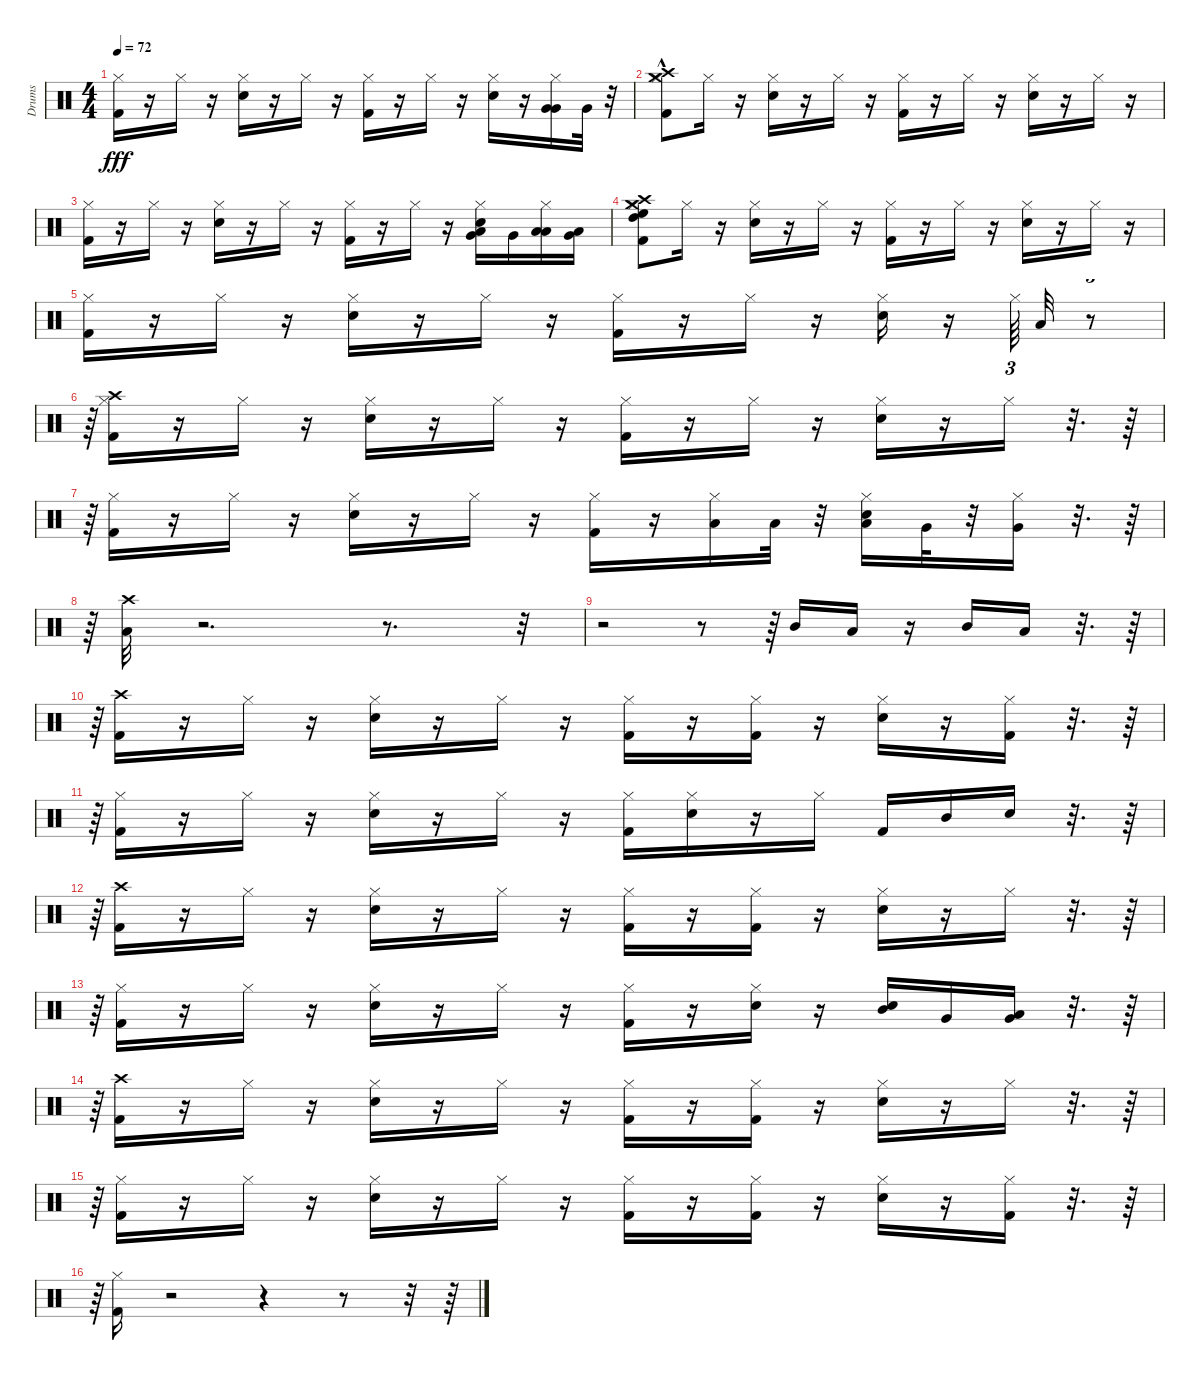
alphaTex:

\track ("Drums" "Drums") {instrument percussion}
\staff {score}
\articulation defaults
\ts (4 4)
\tempo 72
\clef neutral
\ks c
("Hi-Hat (closed)" "Kick (hit) 2").16{dy fff} r.16 "Hi-Hat (closed)".16 r.16 ("Hi-Hat (closed)" "Snare (hit) 2").16 r.16 "Hi-Hat (closed)".16 r.16 ("Kick (hit) 2" "Hi-Hat (closed)").16 r.16 "Hi-Hat (closed)".16 r.16 ("Snare (hit) 2" "Hi-Hat (closed)").16 r.16 ("Very Low Tom (hit)" "Very Low Tom (hit)" "Hi-Hat (closed)").16 "Very Low Tom (hit)".32 r.32 |
("Crash high (hit)"{hac} "Crash medium (hit)" "Hi-Hat (closed)" "Kick (hit) 2").8 "Hi-Hat (closed)".16 r.16 ("Hi-Hat (closed)" "Snare (hit) 2").16 r.16 "Hi-Hat (closed)".16 r.16 ("Hi-Hat (closed)" "Kick (hit) 2").16 r.16 "Hi-Hat (closed)".16 r.16 ("Snare (hit) 2" "Hi-Hat (closed)").16 r.16 "Hi-Hat (closed)".16 r.16 |
("Hi-Hat (closed)" "Kick (hit) 2").16 r.16 "Hi-Hat (closed)".16 r.16 ("Hi-Hat (closed)" "Snare (hit) 2").16 r.16 "Hi-Hat (closed)".16 r.16 ("Hi-Hat (closed)" "Kick (hit) 2").16 r.16 "Hi-Hat (closed)".16 r.16 ("Snare (hit) 2" "Hi-Hat (closed)" "Very Low Tom (hit)" "Low Tom (hit)").16 "Very Low Tom (hit)".16 ("Low Floor Tom (hit)" "Hi-Hat (closed)" "Low Floor Tom (hit)").16 ("Low Floor Tom (hit)" "Very Low Tom (hit)").16 |
("Crash high (hit)" "Crash medium (hit)" "Kick (hit) 2" "Hi-Hat (closed)" "High Tom (hit)" "High Floor Tom (hit)").8 "Hi-Hat (closed)".16 r.16 ("Snare (hit) 2" "Hi-Hat (closed)").16 r.16 "Hi-Hat (closed)".16 r.16 ("Hi-Hat (closed)" "Kick (hit) 2").16 r.16 "Hi-Hat (closed)".16 r.16 ("Snare (hit) 2" "Hi-Hat (closed)").16 r.16 "Hi-Hat (closed)".16 r.16 |
("Kick (hit) 2" "Hi-Hat (closed)").16 r.16 "Hi-Hat (closed)".16 r.16 ("Hi-Hat (closed)" "Snare (hit) 2").16 r.16 "Hi-Hat (closed)".16 r.16 ("Hi-Hat (closed)" "Kick (hit) 2").16 r.16 "Hi-Hat (closed)".16 r.16 ("Snare (hit) 2" "Hi-Hat (closed)").16 r.16 "Hi-Hat (closed)".64{tu (3 2)} "Low Floor Tom (hit)".32 r.8{tu (3 2)} |
r.64{tu (3 2)} ("Kick (hit) 2" "Hi-Hat (closed)" "Crash high (hit)").16 r.16 "Hi-Hat (closed)".16 r.16 ("Hi-Hat (closed)" "Snare (hit) 2").16 r.16 "Hi-Hat (closed)".16 r.16 ("Kick (hit) 2" "Hi-Hat (closed)").16 r.16 "Hi-Hat (closed)".16 r.16 ("Snare (hit) 2" "Hi-Hat (closed)").16 r.16 "Hi-Hat (closed)".16 r.32{d} r.64 |
r.64{tu (3 2)} ("Kick (hit) 2" "Hi-Hat (closed)").16 r.16 "Hi-Hat (closed)".16 r.16 ("Snare (hit) 2" "Hi-Hat (closed)").16 r.16 "Hi-Hat (closed)".16 r.16 ("Kick (hit) 2" "Hi-Hat (closed)").16 r.16 ("Low Tom (hit)" "Hi-Hat (closed)").16 "Low Tom (hit)".32 r.32 ("Low Tom (hit)" "Hi-Hat (closed)" "Snare (hit) 2").16 "Very Low Tom (hit)".32 r.32 ("Hi-Hat (closed)" "Very Low Tom (hit)").16 r.32{d} r.64 |
r.64{tu (3 2)} ("Low Floor Tom (hit)" "Crash high (hit)").32 r.2{d} r.8{d} r.32{tu (3 2)} |
r.2 r.8 r.64{tu (3 2)} "Mid Tom (hit)".16 "Low Floor Tom (hit)".16 r.16 "Mid Tom (hit)".16 "Low Floor Tom (hit)".16 r.32{d} r.64 |
r.64{tu (3 2)} ("Crash high (hit)" "Kick (hit) 2").16 r.16 "Hi-Hat (closed)".16 r.16 ("Snare (hit) 2" "Hi-Hat (closed)").16 r.16 "Hi-Hat (closed)".16 r.16 ("Kick (hit) 2" "Hi-Hat (closed)").16 r.16 ("Hi-Hat (closed)" "Kick (hit) 2").16 r.16 ("Snare (hit) 2" "Hi-Hat (closed)").16 r.16 ("Hi-Hat (closed)" "Kick (hit) 2").16 r.32{d} r.64 |
r.64{tu (3 2)} ("Hi-Hat (closed)" "Kick (hit) 2").16 r.16 "Hi-Hat (closed)".16 r.16 ("Hi-Hat (closed)" "Snare (hit) 2").16 r.16 "Hi-Hat (closed)".16{volume 14} r.16 ("Kick (hit) 2" "Hi-Hat (closed)").16{volume 14} ("Snare (hit) 2" "Hi-Hat (closed)").16{volume 13} r.16 "Hi-Hat (closed)".16{volume 12} "Kick (hit) 2".16{volume 12} "Mid Tom (hit)".16{volume 12} "Snare (hit) 2".16{volume 11} r.32{d} r.64 |
r.64{tu (3 2)} ("Crash high (hit)" "Kick (hit) 2").16{volume 11} r.16 "Hi-Hat (closed)".16{volume 10} r.16 ("Snare (hit) 2" "Hi-Hat (closed)").16{volume 10} r.16 "Hi-Hat (closed)".16{volume 9} r.16 ("Hi-Hat (closed)" "Kick (hit) 2").16{volume 9} r.16 ("Hi-Hat (closed)" "Kick (hit) 2").16{volume 8} r.16 ("Snare (hit) 2" "Hi-Hat (closed)").16{volume 7} r.16 "Hi-Hat (closed)".16{volume 7} r.32{d} r.64 |
r.64{tu (3 2)} ("Hi-Hat (closed)" "Kick (hit) 2").16{volume 6} r.16 "Hi-Hat (closed)".16{volume 6} r.16 ("Hi-Hat (closed)" "Snare (hit) 2").16{volume 5} r.16 "Hi-Hat (closed)".16{volume 5} r.16 ("Hi-Hat (closed)" "Kick (hit) 2").16{volume 4} r.16 ("Hi-Hat (closed)" "Snare (hit) 2").16{volume 4} r.16 ("Snare (hit) 2" "Mid Tom (hit)").16{volume 4} "Very Low Tom (hit)".16{volume 3} ("Very Low Tom (hit)" "Low Floor Tom (hit)").16{volume 3} r.32{d} r.64 |
r.64{tu (3 2)} ("Crash high (hit)" "Kick (hit) 2").16{volume 2} r.16 "Hi-Hat (closed)".16{volume 1} r.16 ("Snare (hit) 2" "Hi-Hat (closed)").16{volume 0} r.16 "Hi-Hat (closed)".16{volume 0} r.16 ("Hi-Hat (closed)" "Kick (hit) 2").16 r.16 ("Kick (hit) 2" "Hi-Hat (closed)").16 r.16 ("Hi-Hat (closed)" "Snare (hit) 2").16 r.16 "Hi-Hat (closed)".16 r.32{d} r.64 |
r.64{tu (3 2)} ("Hi-Hat (closed)" "Kick (hit) 2").16 r.16 "Hi-Hat (closed)".16 r.16 ("Snare (hit) 2" "Hi-Hat (closed)").16 r.16 "Hi-Hat (closed)".16 r.16 ("Hi-Hat (closed)" "Kick (hit) 2").16 r.16 ("Kick (hit) 2" "Hi-Hat (closed)").16 r.16 ("Hi-Hat (closed)" "Snare (hit) 2").16 r.16 ("Hi-Hat (closed)" "Kick (hit) 2").16 r.32{d} r.64 |
r.64{tu (3 2)} ("Hi-Hat (closed)" "Kick (hit) 2").16 r.2 r.4 r.8 r.32 r.64
